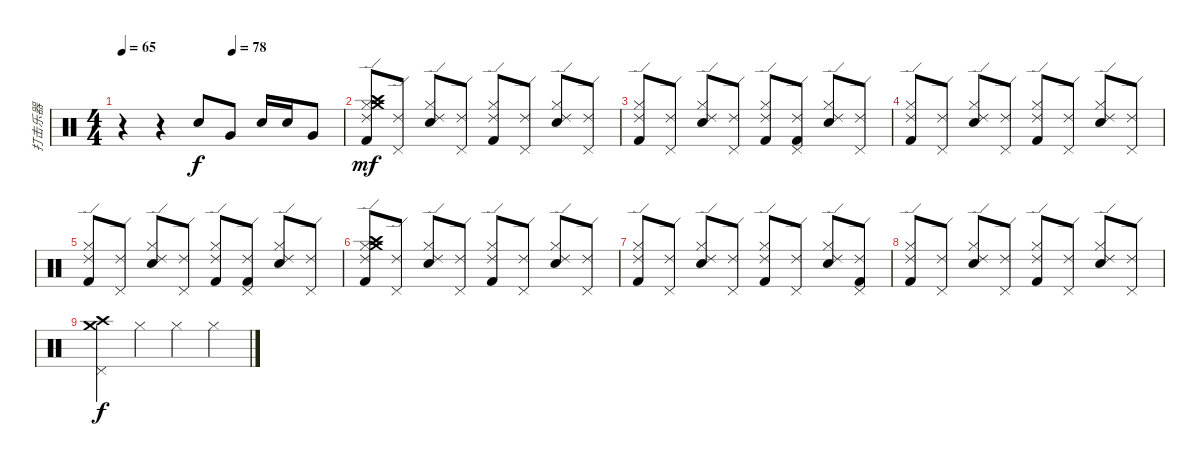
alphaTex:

\track ("打击乐器" "打击乐器") {instrument percussion}
\staff {score}
\articulation defaults
\ts (4 4)
\tempo 65
\tempo (78 0.5)
\clef neutral
\ks c
r.4{dy f} r.4 "Electric Snare (hit)".8 "Very Low Tom (hit)".8 "Electric Snare (hit)".16 "Electric Snare (hit)".16 "Very Low Tom (hit)".8 |
("Kick (hit) 2" "Hi-Hat (closed)" "Crash high (hit)" "Crash medium (hit)" "Ride (edge) 2").8{dy mf} ("Pedal Hi-Hat (hit)" "Ride (edge) 2").8 ("Electric Snare (hit)" "Hi-Hat (closed)" "Ride (edge) 2").8 ("Pedal Hi-Hat (hit)" "Ride (edge) 2").8 ("Kick (hit) 2" "Hi-Hat (closed)" "Ride (edge) 2").8 ("Pedal Hi-Hat (hit)" "Ride (edge) 2").8 ("Electric Snare (hit)" "Hi-Hat (closed)" "Ride (edge) 2").8 ("Pedal Hi-Hat (hit)" "Ride (edge) 2").8 |
("Kick (hit) 2" "Hi-Hat (closed)" "Ride (edge) 2").8 ("Pedal Hi-Hat (hit)" "Ride (edge) 2").8 ("Electric Snare (hit)" "Hi-Hat (closed)" "Ride (edge) 2").8 ("Pedal Hi-Hat (hit)" "Ride (edge) 2").8 ("Kick (hit) 2" "Hi-Hat (closed)" "Ride (edge) 2").8 ("Kick (hit) 2" "Pedal Hi-Hat (hit)" "Ride (edge) 2").8 ("Electric Snare (hit)" "Hi-Hat (closed)" "Ride (edge) 2").8 ("Pedal Hi-Hat (hit)" "Ride (edge) 2").8 |
("Kick (hit) 2" "Hi-Hat (closed)" "Ride (edge) 2").8 ("Pedal Hi-Hat (hit)" "Ride (edge) 2").8 ("Electric Snare (hit)" "Hi-Hat (closed)" "Ride (edge) 2").8 ("Pedal Hi-Hat (hit)" "Ride (edge) 2").8 ("Kick (hit) 2" "Hi-Hat (closed)" "Ride (edge) 2").8 ("Pedal Hi-Hat (hit)" "Ride (edge) 2").8 ("Electric Snare (hit)" "Hi-Hat (closed)" "Ride (edge) 2").8 ("Pedal Hi-Hat (hit)" "Ride (edge) 2").8 |
("Kick (hit) 2" "Hi-Hat (closed)" "Ride (edge) 2").8 ("Pedal Hi-Hat (hit)" "Ride (edge) 2").8 ("Electric Snare (hit)" "Hi-Hat (closed)" "Ride (edge) 2").8 ("Pedal Hi-Hat (hit)" "Ride (edge) 2").8 ("Kick (hit) 2" "Hi-Hat (closed)" "Ride (edge) 2").8 ("Kick (hit) 2" "Pedal Hi-Hat (hit)" "Ride (edge) 2").8 ("Electric Snare (hit)" "Hi-Hat (closed)" "Ride (edge) 2").8 ("Pedal Hi-Hat (hit)" "Ride (edge) 2").8 |
("Kick (hit) 2" "Hi-Hat (closed)" "Crash high (hit)" "Crash medium (hit)" "Ride (edge) 2").8 ("Pedal Hi-Hat (hit)" "Ride (edge) 2").8 ("Electric Snare (hit)" "Hi-Hat (closed)" "Ride (edge) 2").8 ("Pedal Hi-Hat (hit)" "Ride (edge) 2").8 ("Kick (hit) 2" "Hi-Hat (closed)" "Ride (edge) 2").8 ("Pedal Hi-Hat (hit)" "Ride (edge) 2").8 ("Electric Snare (hit)" "Hi-Hat (closed)" "Ride (edge) 2").8 ("Pedal Hi-Hat (hit)" "Ride (edge) 2").8 |
("Kick (hit) 2" "Hi-Hat (closed)" "Ride (edge) 2").8 ("Pedal Hi-Hat (hit)" "Ride (edge) 2").8 ("Electric Snare (hit)" "Hi-Hat (closed)" "Ride (edge) 2").8 ("Pedal Hi-Hat (hit)" "Ride (edge) 2").8 ("Kick (hit) 2" "Hi-Hat (closed)" "Ride (edge) 2").8 ("Pedal Hi-Hat (hit)" "Ride (edge) 2").8 ("Electric Snare (hit)" "Hi-Hat (closed)" "Ride (edge) 2").8 ("Kick (hit) 2" "Pedal Hi-Hat (hit)" "Ride (edge) 2").8 |
("Kick (hit) 2" "Hi-Hat (closed)" "Ride (edge) 2").8 ("Pedal Hi-Hat (hit)" "Ride (edge) 2").8 ("Electric Snare (hit)" "Hi-Hat (closed)" "Ride (edge) 2").8 ("Pedal Hi-Hat (hit)" "Ride (edge) 2").8 ("Kick (hit) 2" "Hi-Hat (closed)" "Ride (edge) 2").8 ("Pedal Hi-Hat (hit)" "Ride (edge) 2").8 ("Electric Snare (hit)" "Hi-Hat (closed)" "Ride (edge) 2").8 ("Pedal Hi-Hat (hit)" "Ride (edge) 2").8 |
("Pedal Hi-Hat (hit)" "Crash high (hit)" "Crash medium (hit)").4{dy f} "Hi-Hat (closed)".4 "Hi-Hat (closed)".4 "Hi-Hat (closed)".4
